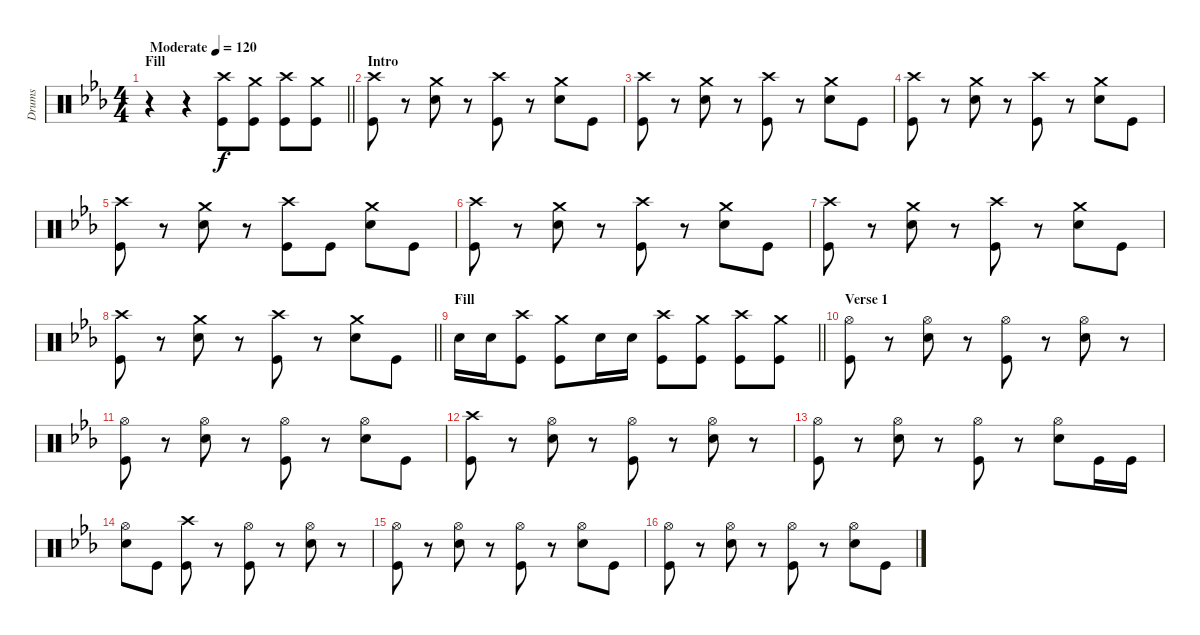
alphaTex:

\track ("Drums" "Drums") {instrument percussion}
\staff {score}
\articulation defaults
\ts (4 4)
\section ("" "Fill")
\tempo (120 "Moderate")
\clef neutral
\barLineRight lightlight
\ks cminor
r.4{dy f} r.4 ("Crash high (hit)" "Kick (hit)").8 ("Crash medium (hit)" "Kick (hit)").8 ("Crash high (hit)" "Kick (hit)").8 ("Crash medium (hit)" "Kick (hit)").8 |
\section ("" "Intro")
("Crash high (hit)" "Kick (hit)").8 r.8 ("Crash medium (hit)" "Snare (hit) 2").8 r.8 ("Crash high (hit)" "Kick (hit)").8 r.8 ("Crash medium (hit)" "Snare (hit) 2").8 "Kick (hit)".8 |
("Crash high (hit)" "Kick (hit)").8 r.8 ("Crash medium (hit)" "Snare (hit) 2").8 r.8 ("Crash high (hit)" "Kick (hit)").8 r.8 ("Crash medium (hit)" "Snare (hit) 2").8 "Kick (hit)".8 |
("Crash high (hit)" "Kick (hit)").8 r.8 ("Crash medium (hit)" "Snare (hit) 2").8 r.8 ("Crash high (hit)" "Kick (hit)").8 r.8 ("Crash medium (hit)" "Snare (hit) 2").8 "Kick (hit)".8 |
("Crash high (hit)" "Kick (hit)").8 r.8 ("Crash medium (hit)" "Snare (hit) 2").8 r.8 ("Crash high (hit)" "Kick (hit)").8 "Kick (hit)".8 ("Crash medium (hit)" "Snare (hit) 2").8 "Kick (hit)".8 |
("Crash high (hit)" "Kick (hit)").8 r.8 ("Crash medium (hit)" "Snare (hit) 2").8 r.8 ("Crash high (hit)" "Kick (hit)").8 r.8 ("Crash medium (hit)" "Snare (hit) 2").8 "Kick (hit)".8 |
("Crash high (hit)" "Kick (hit)").8 r.8 ("Crash medium (hit)" "Snare (hit) 2").8 r.8 ("Crash high (hit)" "Kick (hit)").8 r.8 ("Crash medium (hit)" "Snare (hit) 2").8 "Kick (hit)".8 |
\barLineRight lightlight
("Crash high (hit)" "Kick (hit)").8 r.8 ("Crash medium (hit)" "Snare (hit) 2").8 r.8 ("Crash high (hit)" "Kick (hit)").8 r.8 ("Crash medium (hit)" "Snare (hit) 2").8 "Kick (hit)".8 |
\section ("" "Fill")
\barLineRight lightlight "Snare (hit) 2".16 "Snare (hit) 2".16
("Kick (hit)" "Crash high (hit)").8 ("Kick (hit)" "Crash medium (hit)").8 "Snare (hit) 2".16 "Snare (hit) 2".16 ("Kick (hit)" "Crash high (hit)").8 ("Kick (hit)" "Crash medium (hit)").8 ("Kick (hit)" "Crash high (hit)").8 ("Kick (hit)" "Crash medium (hit)").8 |
\section ("" "Verse 1")
("Hi-Hat (open)" "Kick (hit)").8 r.8 ("Hi-Hat (open)" "Snare (hit) 2").8 r.8 ("Hi-Hat (open)" "Kick (hit)").8 r.8 ("Hi-Hat (open)" "Snare (hit) 2").8 r.8 |
("Hi-Hat (open)" "Kick (hit)").8 r.8 ("Hi-Hat (open)" "Snare (hit) 2").8 r.8 ("Hi-Hat (open)" "Kick (hit)").8 r.8 ("Hi-Hat (open)" "Snare (hit) 2").8 "Kick (hit)".8 |
("Crash high (hit)" "Kick (hit)").8 r.8 ("Hi-Hat (open)" "Snare (hit) 2").8 r.8 ("Hi-Hat (open)" "Kick (hit)").8 r.8 ("Hi-Hat (open)" "Snare (hit) 2").8 r.8 |
("Hi-Hat (open)" "Kick (hit)").8 r.8 ("Hi-Hat (open)" "Snare (hit) 2").8 r.8 ("Hi-Hat (open)" "Kick (hit)").8 r.8 ("Hi-Hat (open)" "Snare (hit) 2").8 "Kick (hit)".16 "Kick (hit)".16 |
("Hi-Hat (open)" "Snare (hit) 2").8 "Kick (hit)".8 ("Crash high (hit)" "Kick (hit)").8 r.8 ("Hi-Hat (open)" "Kick (hit)").8 r.8 ("Hi-Hat (open)" "Snare (hit) 2").8 r.8 |
("Hi-Hat (open)" "Kick (hit)").8 r.8 ("Hi-Hat (open)" "Snare (hit) 2").8 r.8 ("Hi-Hat (open)" "Kick (hit)").8 r.8 ("Hi-Hat (open)" "Snare (hit) 2").8 "Kick (hit)".8 |
("Hi-Hat (open)" "Kick (hit)").8 r.8 ("Hi-Hat (open)" "Snare (hit) 2").8 r.8 ("Hi-Hat (open)" "Kick (hit)").8 r.8 ("Hi-Hat (open)" "Snare (hit) 2").8 "Kick (hit)".8
